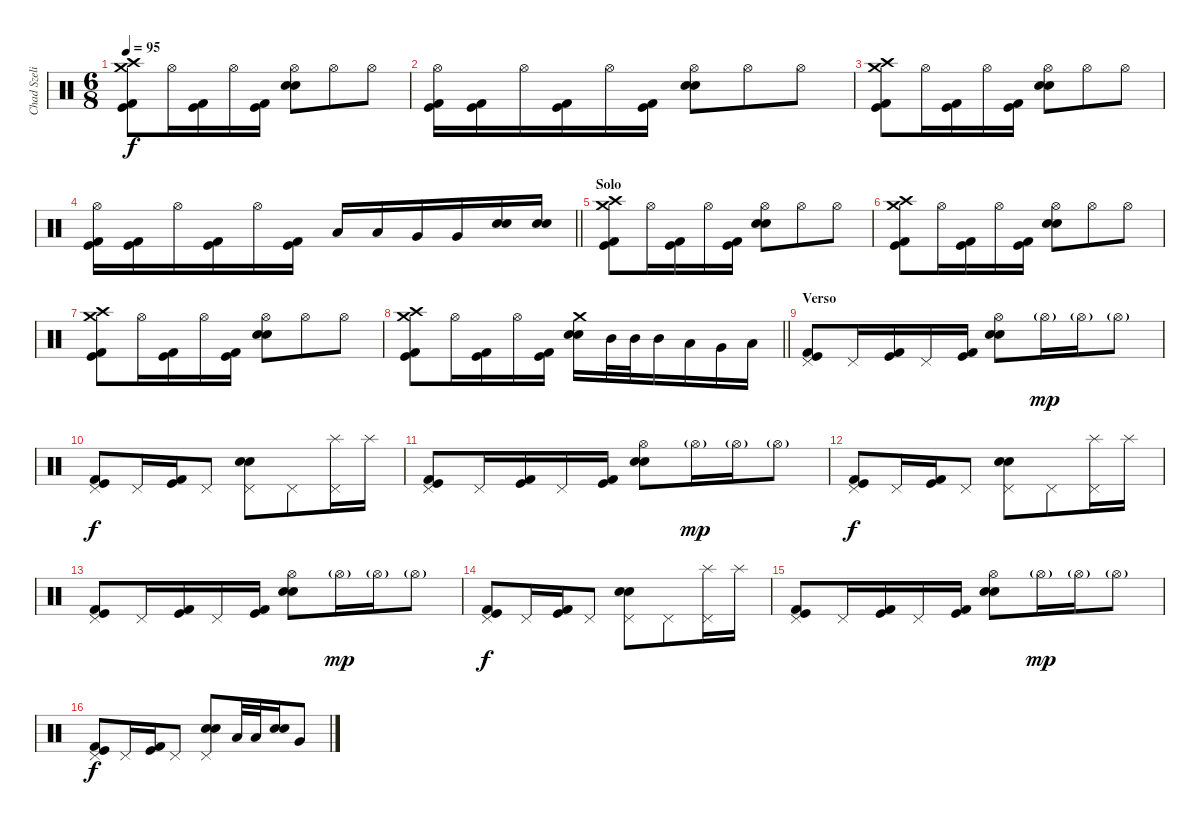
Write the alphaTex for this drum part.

\track ("Chad Szeliga" "Chad Szeli") {instrument percussion}
\staff {score}
\articulation defaults
\ts (6 8)
\tempo 95
\clef neutral
\ks c
("Crash high (hit)" "Kick (hit) 2" "Kick (hit)" "Crash medium (hit)").8{dy f} "Hi-Hat (open)".16 ("Kick (hit) 2" "Kick (hit)").16 "Hi-Hat (open)".16 ("Kick (hit) 2" "Kick (hit)").16 ("Snare (hit) 2" "Snare (hit) 2" "Hi-Hat (open)").8 "Hi-Hat (open)".8 "Hi-Hat (open)".8 |
("Kick (hit) 2" "Kick (hit)" "Hi-Hat (open)").16 ("Kick (hit) 2" "Kick (hit)").16 "Hi-Hat (open)".16 ("Kick (hit) 2" "Kick (hit)").16 "Hi-Hat (open)".16 ("Kick (hit) 2" "Kick (hit)").16 ("Snare (hit) 2" "Snare (hit) 2" "Hi-Hat (open)").8 "Hi-Hat (open)".8 "Hi-Hat (open)".8 |
("Crash high (hit)" "Kick (hit) 2" "Kick (hit)" "Crash medium (hit)").8 "Hi-Hat (open)".16 ("Kick (hit) 2" "Kick (hit)").16 "Hi-Hat (open)".16 ("Kick (hit) 2" "Kick (hit)").16 ("Snare (hit) 2" "Snare (hit) 2" "Hi-Hat (open)").8 "Hi-Hat (open)".8 "Hi-Hat (open)".8 |
\barLineRight lightlight
("Kick (hit) 2" "Kick (hit)" "Hi-Hat (open)").16 ("Kick (hit) 2" "Kick (hit)").16 "Hi-Hat (open)".16 ("Kick (hit) 2" "Kick (hit)").16 "Hi-Hat (open)".16 ("Kick (hit) 2" "Kick (hit)").16 "Low Tom (hit)".16 "Low Tom (hit)".16 "Very Low Tom (hit)".16 "Very Low Tom (hit)".16 ("Snare (hit) 2" "Snare (hit) 2").16 ("Snare (hit) 2" "Snare (hit) 2").16 |
\section ("" "Solo")
("Crash high (hit)" "Kick (hit) 2" "Kick (hit)" "Crash medium (hit)").8 "Hi-Hat (open)".16 ("Kick (hit) 2" "Kick (hit)").16 "Hi-Hat (open)".16 ("Kick (hit) 2" "Kick (hit)").16 ("Snare (hit) 2" "Snare (hit) 2" "Hi-Hat (open)").8 "Hi-Hat (open)".8 "Hi-Hat (open)".8 |
("Crash high (hit)" "Kick (hit) 2" "Kick (hit)" "Crash medium (hit)").8 "Hi-Hat (open)".16 ("Kick (hit) 2" "Kick (hit)").16 "Hi-Hat (open)".16 ("Kick (hit) 2" "Kick (hit)").16 ("Snare (hit) 2" "Snare (hit) 2" "Hi-Hat (open)").8 "Hi-Hat (open)".8 "Hi-Hat (open)".8 |
("Crash high (hit)" "Kick (hit) 2" "Kick (hit)" "Crash medium (hit)").8 "Hi-Hat (open)".16 ("Kick (hit) 2" "Kick (hit)").16 "Hi-Hat (open)".16 ("Kick (hit) 2" "Kick (hit)").16 ("Snare (hit) 2" "Snare (hit) 2" "Hi-Hat (open)").8 "Hi-Hat (open)".8 "Hi-Hat (open)".8 |
\barLineRight lightlight
("Crash high (hit)" "Kick (hit) 2" "Kick (hit)" "Crash medium (hit)").8 "Hi-Hat (open)".16 ("Kick (hit) 2" "Kick (hit)").16 "Hi-Hat (open)".16 ("Kick (hit) 2" "Kick (hit)").16 ("Crash medium (hit)" "Snare (hit) 2" "Snare (hit) 2").16 "Mid Tom (hit)".32 "Mid Tom (hit)".32 "Mid Tom (hit)".16 "Low Tom (hit)".16 "Very Low Tom (hit)".16 "Low Tom (hit)".16 |
\section ("" "Verso")
("Kick (hit) 2" "Kick (hit)" "Pedal Hi-Hat (hit)").8 "Pedal Hi-Hat (hit)".16 ("Kick (hit) 2" "Kick (hit)").16 "Pedal Hi-Hat (hit)".16 ("Kick (hit) 2" "Kick (hit)").16 ("Snare (hit) 2" "Snare (hit) 2" "Hi-Hat (open)").8 "Hi-Hat (open)"{g}.16{dy mp} "Hi-Hat (open)"{g}.16 "Hi-Hat (open)"{g}.8 |
("Kick (hit) 2" "Kick (hit)" "Pedal Hi-Hat (hit)").8{dy f} "Pedal Hi-Hat (hit)".16 ("Kick (hit) 2" "Kick (hit)").16 "Pedal Hi-Hat (hit)".8 ("Snare (hit) 2" "Snare (hit) 2" "Pedal Hi-Hat (hit)").8 "Pedal Hi-Hat (hit)".8 ("Splash (hit)" "Pedal Hi-Hat (hit)").16 "Splash (hit)".16 |
("Kick (hit) 2" "Kick (hit)" "Pedal Hi-Hat (hit)").8 "Pedal Hi-Hat (hit)".16 ("Kick (hit) 2" "Kick (hit)").16 "Pedal Hi-Hat (hit)".16 ("Kick (hit) 2" "Kick (hit)").16 ("Snare (hit) 2" "Snare (hit) 2" "Hi-Hat (open)").8 "Hi-Hat (open)"{g}.16{dy mp} "Hi-Hat (open)"{g}.16 "Hi-Hat (open)"{g}.8 |
("Kick (hit) 2" "Kick (hit)" "Pedal Hi-Hat (hit)").8{dy f} "Pedal Hi-Hat (hit)".16 ("Kick (hit) 2" "Kick (hit)").16 "Pedal Hi-Hat (hit)".8 ("Snare (hit) 2" "Snare (hit) 2" "Pedal Hi-Hat (hit)").8 "Pedal Hi-Hat (hit)".8 ("Splash (hit)" "Pedal Hi-Hat (hit)").16 "Splash (hit)".16 |
("Kick (hit) 2" "Kick (hit)" "Pedal Hi-Hat (hit)").8 "Pedal Hi-Hat (hit)".16 ("Kick (hit) 2" "Kick (hit)").16 "Pedal Hi-Hat (hit)".16 ("Kick (hit) 2" "Kick (hit)").16 ("Snare (hit) 2" "Snare (hit) 2" "Hi-Hat (open)").8 "Hi-Hat (open)"{g}.16{dy mp} "Hi-Hat (open)"{g}.16 "Hi-Hat (open)"{g}.8 |
("Kick (hit) 2" "Kick (hit)" "Pedal Hi-Hat (hit)").8{dy f} "Pedal Hi-Hat (hit)".16 ("Kick (hit) 2" "Kick (hit)").16 "Pedal Hi-Hat (hit)".8 ("Snare (hit) 2" "Snare (hit) 2" "Pedal Hi-Hat (hit)").8 "Pedal Hi-Hat (hit)".8 ("Splash (hit)" "Pedal Hi-Hat (hit)").16 "Splash (hit)".16 |
("Kick (hit) 2" "Kick (hit)" "Pedal Hi-Hat (hit)").8 "Pedal Hi-Hat (hit)".16 ("Kick (hit) 2" "Kick (hit)").16 "Pedal Hi-Hat (hit)".16 ("Kick (hit) 2" "Kick (hit)").16 ("Snare (hit) 2" "Snare (hit) 2" "Hi-Hat (open)").8 "Hi-Hat (open)"{g}.16{dy mp} "Hi-Hat (open)"{g}.16 "Hi-Hat (open)"{g}.8 |
("Kick (hit) 2" "Kick (hit)" "Pedal Hi-Hat (hit)").8{dy f} "Pedal Hi-Hat (hit)".16 ("Kick (hit) 2" "Kick (hit)").16 "Pedal Hi-Hat (hit)".8 ("Snare (hit) 2" "Snare (hit) 2" "Pedal Hi-Hat (hit)").8 "Low Tom (hit)".32 "Low Tom (hit)".32 ("Snare (hit) 2" "Snare (hit) 2").16 "Very Low Tom (hit)".8
